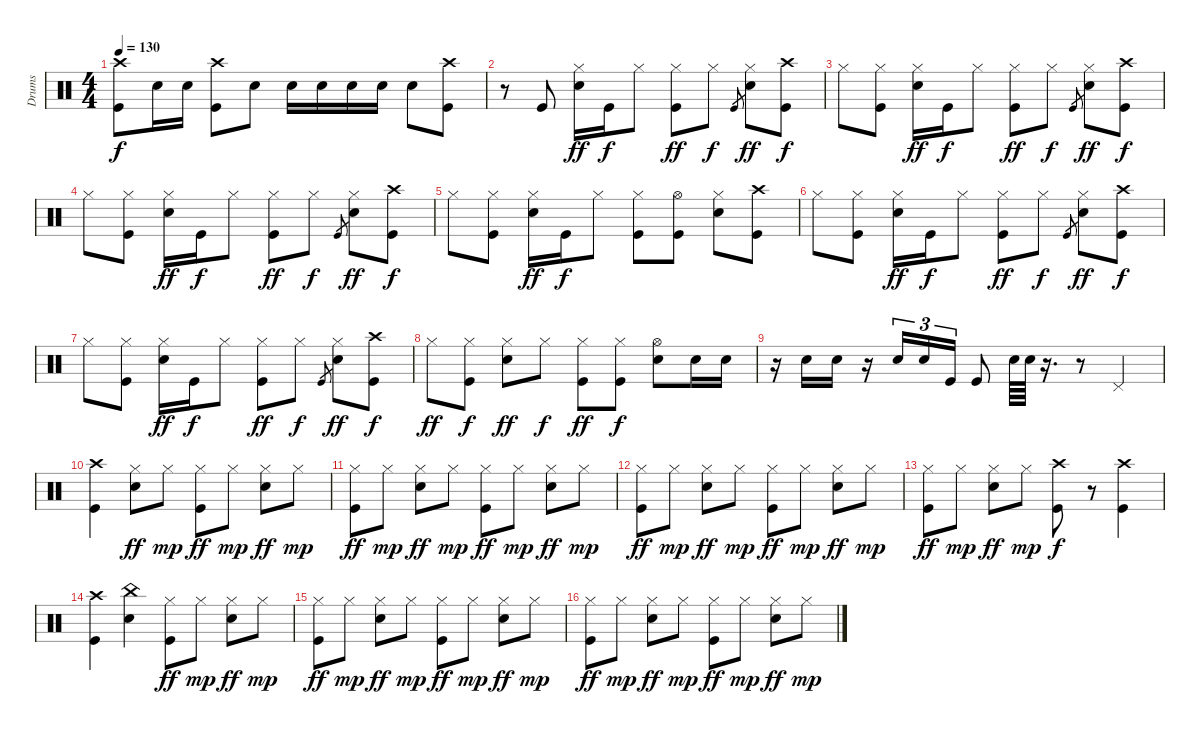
\track ("Drums" "Drums") {instrument percussion}
\staff {score}
\articulation defaults
\ts (4 4)
\tempo 130
\clef neutral
\ks c
("Crash high (hit)" "Kick (hit)").8{dy f} "Snare (hit) 2".16 "Snare (hit) 2".16 ("Crash high (hit)" "Kick (hit)").8 "Snare (hit) 2".8 "Snare (hit) 2".16 "Snare (hit) 2".16 "Snare (hit) 2".16 "Snare (hit) 2".16 "Snare (hit) 2".8 ("Crash high (hit)" "Kick (hit)").8 |
r.8 "Kick (hit)".8 ("Hi-Hat (closed)" "Snare (hit) 2").16{dy ff} "Kick (hit)".16{dy f} "Hi-Hat (closed)".8 ("Hi-Hat (closed)" "Kick (hit)").8{dy ff} "Hi-Hat (closed)".8{dy f} "Kick (hit)".8{gr} ("Hi-Hat (closed)" "Snare (hit) 2").8{dy ff} ("Crash high (hit)" "Kick (hit)").8{dy f} |
"Hi-Hat (closed)".8 ("Hi-Hat (closed)" "Kick (hit)").8 ("Hi-Hat (closed)" "Snare (hit) 2").16{dy ff} "Kick (hit)".16{dy f} "Hi-Hat (closed)".8 ("Hi-Hat (closed)" "Kick (hit)").8{dy ff} "Hi-Hat (closed)".8{dy f} "Kick (hit)".8{gr} ("Hi-Hat (closed)" "Snare (hit) 2").8{dy ff} ("Crash high (hit)" "Kick (hit)").8{dy f} |
"Hi-Hat (closed)".8 ("Hi-Hat (closed)" "Kick (hit)").8 ("Hi-Hat (closed)" "Snare (hit) 2").16{dy ff} "Kick (hit)".16{dy f} "Hi-Hat (closed)".8 ("Hi-Hat (closed)" "Kick (hit)").8{dy ff} "Hi-Hat (closed)".8{dy f} "Kick (hit)".8{gr} ("Hi-Hat (closed)" "Snare (hit) 2").8{dy ff} ("Crash high (hit)" "Kick (hit)").8{dy f} |
"Hi-Hat (closed)".8 ("Hi-Hat (closed)" "Kick (hit)").8 ("Hi-Hat (closed)" "Snare (hit) 2").16{dy ff} "Kick (hit)".16{dy f} "Hi-Hat (closed)".8 ("Hi-Hat (closed)" "Kick (hit)").8 ("Hi-Hat (open)" "Kick (hit)").8 ("Hi-Hat (closed)" "Snare (hit) 2").8 ("Crash high (hit)" "Kick (hit)").8 |
"Hi-Hat (closed)".8 ("Hi-Hat (closed)" "Kick (hit)").8 ("Hi-Hat (closed)" "Snare (hit) 2").16{dy ff} "Kick (hit)".16{dy f} "Hi-Hat (closed)".8 ("Hi-Hat (closed)" "Kick (hit)").8{dy ff} "Hi-Hat (closed)".8{dy f} "Kick (hit)".8{gr} ("Hi-Hat (closed)" "Snare (hit) 2").8{dy ff} ("Crash high (hit)" "Kick (hit)").8{dy f} |
"Hi-Hat (closed)".8 ("Hi-Hat (closed)" "Kick (hit)").8 ("Hi-Hat (closed)" "Snare (hit) 2").16{dy ff} "Kick (hit)".16{dy f} "Hi-Hat (closed)".8 ("Hi-Hat (closed)" "Kick (hit)").8{dy ff} "Hi-Hat (closed)".8{dy f} "Kick (hit)".8{gr} ("Hi-Hat (closed)" "Snare (hit) 2").8{dy ff} ("Crash high (hit)" "Kick (hit)").8{dy f} |
"Hi-Hat (closed)".8{dy ff} ("Hi-Hat (closed)" "Kick (hit)").8{dy f} ("Hi-Hat (closed)" "Snare (hit) 2").8{dy ff} "Hi-Hat (closed)".8{dy f} ("Hi-Hat (closed)" "Kick (hit)").8{dy ff} ("Hi-Hat (closed)" "Kick (hit)").8{dy f} ("Hi-Hat (open)" "Snare (hit) 2").8 "Snare (hit) 2".16 "Snare (hit) 2".16 |
r.16 "Snare (hit) 2".16 "Snare (hit) 2".16 r.16 "Snare (hit) 2".16{tu (3 2)} "Snare (hit) 2".16{tu (3 2)} "Kick (hit)".16{tu (3 2)} "Kick (hit)".8 "Snare (hit) 2".64 "Snare (hit) 2".64 r.16{d} r.8 "Pedal Hi-Hat (hit)".4 |
("Crash high (hit)" "Kick (hit)").4 ("Hi-Hat (closed)" "Snare (hit) 2").8{dy ff} "Hi-Hat (closed)".8{dy mp} ("Hi-Hat (closed)" "Kick (hit)").8{dy ff} "Hi-Hat (closed)".8{dy mp} ("Hi-Hat (closed)" "Snare (hit) 2").8{dy ff} "Hi-Hat (closed)".8{dy mp} |
("Hi-Hat (closed)" "Kick (hit)").8{dy ff} "Hi-Hat (closed)".8{dy mp} ("Hi-Hat (closed)" "Snare (hit) 2").8{dy ff} "Hi-Hat (closed)".8{dy mp} ("Hi-Hat (closed)" "Kick (hit)").8{dy ff} "Hi-Hat (closed)".8{dy mp} ("Hi-Hat (closed)" "Snare (hit) 2").8{dy ff} "Hi-Hat (closed)".8{dy mp} |
("Hi-Hat (closed)" "Kick (hit)").8{dy ff} "Hi-Hat (closed)".8{dy mp} ("Hi-Hat (closed)" "Snare (hit) 2").8{dy ff} "Hi-Hat (closed)".8{dy mp} ("Hi-Hat (closed)" "Kick (hit)").8{dy ff} "Hi-Hat (closed)".8{dy mp} ("Hi-Hat (closed)" "Snare (hit) 2").8{dy ff} "Hi-Hat (closed)".8{dy mp} |
("Hi-Hat (closed)" "Kick (hit)").8{dy ff} "Hi-Hat (closed)".8{dy mp} ("Hi-Hat (closed)" "Snare (hit) 2").8{dy ff} "Hi-Hat (closed)".8{dy mp} ("Crash high (hit)" "Kick (hit)").8{dy f} r.8 ("Crash high (hit)" "Kick (hit)").4 |
("Crash high (hit)" "Kick (hit)").4 ("China (hit)" "Snare (hit) 2").4 ("Hi-Hat (closed)" "Kick (hit)").8{dy ff} "Hi-Hat (closed)".8{dy mp} ("Hi-Hat (closed)" "Snare (hit) 2").8{dy ff} "Hi-Hat (closed)".8{dy mp} |
("Hi-Hat (closed)" "Kick (hit)").8{dy ff} "Hi-Hat (closed)".8{dy mp} ("Hi-Hat (closed)" "Snare (hit) 2").8{dy ff} "Hi-Hat (closed)".8{dy mp} ("Hi-Hat (closed)" "Kick (hit)").8{dy ff} "Hi-Hat (closed)".8{dy mp} ("Hi-Hat (closed)" "Snare (hit) 2").8{dy ff} "Hi-Hat (closed)".8{dy mp} |
("Hi-Hat (closed)" "Kick (hit)").8{dy ff} "Hi-Hat (closed)".8{dy mp} ("Hi-Hat (closed)" "Snare (hit) 2").8{dy ff} "Hi-Hat (closed)".8{dy mp} ("Hi-Hat (closed)" "Kick (hit)").8{dy ff} "Hi-Hat (closed)".8{dy mp} ("Hi-Hat (closed)" "Snare (hit) 2").8{dy ff} "Hi-Hat (closed)".8{dy mp}
